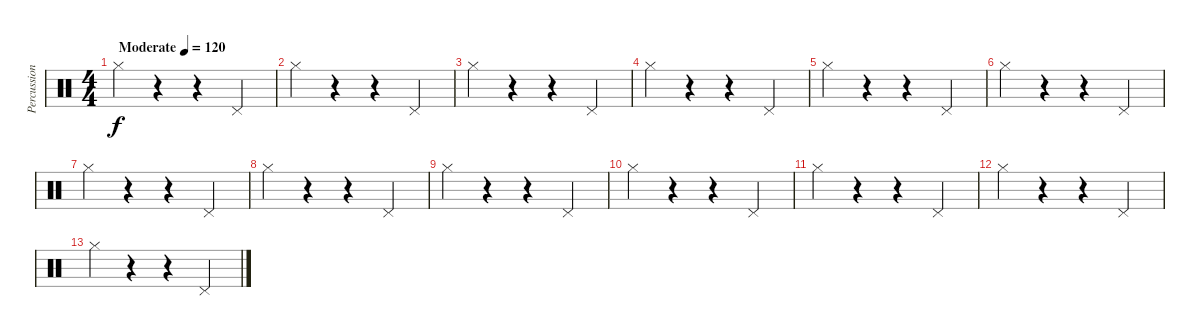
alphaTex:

\track ("Percussion" "Percussion") {instrument percussion}
\staff {score}
\articulation defaults
\ts (4 4)
\tempo (120 "Moderate")
\clef neutral
\ks c "Hi-Hat (closed)".4{dy f}
r.4 r.4 "Pedal Hi-Hat (hit)".4 |
"Hi-Hat (closed)".4 r.4 r.4 "Pedal Hi-Hat (hit)".4 |
"Hi-Hat (closed)".4 r.4 r.4 "Pedal Hi-Hat (hit)".4 |
"Hi-Hat (closed)".4 r.4 r.4 "Pedal Hi-Hat (hit)".4 |
"Hi-Hat (closed)".4 r.4 r.4 "Pedal Hi-Hat (hit)".4 |
"Hi-Hat (closed)".4 r.4 r.4 "Pedal Hi-Hat (hit)".4 |
"Hi-Hat (closed)".4 r.4 r.4 "Pedal Hi-Hat (hit)".4 |
"Hi-Hat (closed)".4 r.4 r.4 "Pedal Hi-Hat (hit)".4 |
"Hi-Hat (closed)".4 r.4 r.4 "Pedal Hi-Hat (hit)".4 |
"Hi-Hat (closed)".4 r.4 r.4 "Pedal Hi-Hat (hit)".4 |
"Hi-Hat (closed)".4 r.4 r.4 "Pedal Hi-Hat (hit)".4 |
"Hi-Hat (closed)".4 r.4 r.4 "Pedal Hi-Hat (hit)".4 |
"Hi-Hat (closed)".4 r.4 r.4 "Pedal Hi-Hat (hit)".4
